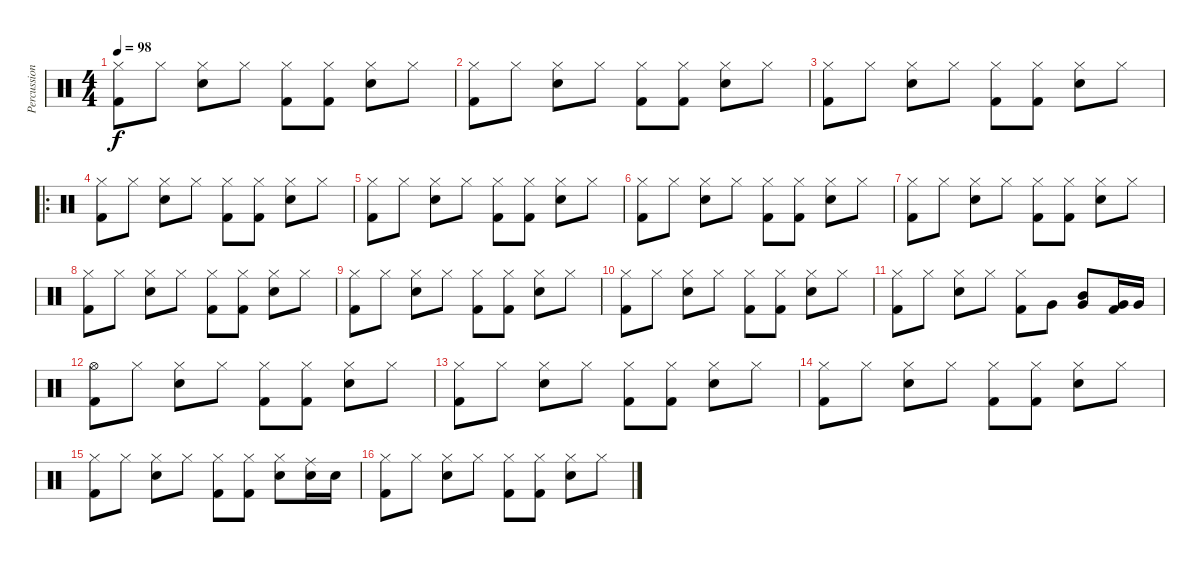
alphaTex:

\track ("Percussion" "Percussion") {instrument percussion}
\staff {score}
\articulation defaults
\ts (4 4)
\tempo 98
\clef neutral
\ks c
("Hi-Hat (closed)" "Kick (hit) 2").8{dy f} "Hi-Hat (closed)".8 ("Hi-Hat (closed)" "Snare (hit) 2").8 "Hi-Hat (closed)".8 ("Hi-Hat (closed)" "Kick (hit) 2").8 ("Hi-Hat (closed)" "Kick (hit) 2").8 ("Hi-Hat (closed)" "Snare (hit) 2").8 "Hi-Hat (closed)".8 |
("Hi-Hat (closed)" "Kick (hit) 2").8 "Hi-Hat (closed)".8 ("Hi-Hat (closed)" "Snare (hit) 2").8 "Hi-Hat (closed)".8 ("Hi-Hat (closed)" "Kick (hit) 2").8 ("Hi-Hat (closed)" "Kick (hit) 2").8 ("Hi-Hat (closed)" "Snare (hit) 2").8 "Hi-Hat (closed)".8 |
("Hi-Hat (closed)" "Kick (hit) 2").8 "Hi-Hat (closed)".8 ("Hi-Hat (closed)" "Snare (hit) 2").8 "Hi-Hat (closed)".8 ("Hi-Hat (closed)" "Kick (hit) 2").8 ("Hi-Hat (closed)" "Kick (hit) 2").8 ("Hi-Hat (closed)" "Snare (hit) 2").8 "Hi-Hat (closed)".8 |
\ro
("Hi-Hat (closed)" "Kick (hit) 2").8 "Hi-Hat (closed)".8 ("Hi-Hat (closed)" "Snare (hit) 2").8 "Hi-Hat (closed)".8 ("Hi-Hat (closed)" "Kick (hit) 2").8 ("Hi-Hat (closed)" "Kick (hit) 2").8 ("Hi-Hat (closed)" "Snare (hit) 2").8 "Hi-Hat (closed)".8 |
("Hi-Hat (closed)" "Kick (hit) 2").8 "Hi-Hat (closed)".8 ("Hi-Hat (closed)" "Snare (hit) 2").8 "Hi-Hat (closed)".8 ("Hi-Hat (closed)" "Kick (hit) 2").8 ("Hi-Hat (closed)" "Kick (hit) 2").8 ("Hi-Hat (closed)" "Snare (hit) 2").8 "Hi-Hat (closed)".8 |
("Hi-Hat (closed)" "Kick (hit) 2").8 "Hi-Hat (closed)".8 ("Hi-Hat (closed)" "Snare (hit) 2").8 "Hi-Hat (closed)".8 ("Hi-Hat (closed)" "Kick (hit) 2").8 ("Hi-Hat (closed)" "Kick (hit) 2").8 ("Hi-Hat (closed)" "Snare (hit) 2").8 "Hi-Hat (closed)".8 |
("Hi-Hat (closed)" "Kick (hit) 2").8 "Hi-Hat (closed)".8 ("Hi-Hat (closed)" "Snare (hit) 2").8 "Hi-Hat (closed)".8 ("Hi-Hat (closed)" "Kick (hit) 2").8 ("Hi-Hat (closed)" "Kick (hit) 2").8 ("Hi-Hat (closed)" "Snare (hit) 2").8 "Hi-Hat (closed)".8 |
("Hi-Hat (closed)" "Kick (hit) 2").8 "Hi-Hat (closed)".8 ("Hi-Hat (closed)" "Snare (hit) 2").8 "Hi-Hat (closed)".8 ("Hi-Hat (closed)" "Kick (hit) 2").8 ("Hi-Hat (closed)" "Kick (hit) 2").8 ("Hi-Hat (closed)" "Snare (hit) 2").8 "Hi-Hat (closed)".8 |
("Hi-Hat (closed)" "Kick (hit) 2").8 "Hi-Hat (closed)".8 ("Hi-Hat (closed)" "Snare (hit) 2").8 "Hi-Hat (closed)".8 ("Hi-Hat (closed)" "Kick (hit) 2").8 ("Hi-Hat (closed)" "Kick (hit) 2").8 ("Hi-Hat (closed)" "Snare (hit) 2").8 "Hi-Hat (closed)".8 |
("Hi-Hat (closed)" "Kick (hit) 2").8 "Hi-Hat (closed)".8 ("Hi-Hat (closed)" "Snare (hit) 2").8 "Hi-Hat (closed)".8 ("Hi-Hat (closed)" "Kick (hit) 2").8 ("Hi-Hat (closed)" "Kick (hit) 2").8 ("Hi-Hat (closed)" "Snare (hit) 2").8 "Hi-Hat (closed)".8 |
("Hi-Hat (closed)" "Kick (hit) 2").8 "Hi-Hat (closed)".8 ("Hi-Hat (closed)" "Snare (hit) 2").8 "Hi-Hat (closed)".8 ("Hi-Hat (closed)" "Kick (hit) 2").8 "Very Low Tom (hit)".8 ("Mid Tom (hit)" "Very Low Tom (hit)").8 ("Very Low Tom (hit)" "Kick (hit) 2").16 "Very Low Tom (hit)".16 |
("Hi-Hat (open)" "Kick (hit) 2").8 "Hi-Hat (closed)".8 ("Hi-Hat (closed)" "Snare (hit) 2").8 "Hi-Hat (closed)".8 ("Hi-Hat (closed)" "Kick (hit) 2").8 ("Hi-Hat (closed)" "Kick (hit) 2").8 ("Hi-Hat (closed)" "Snare (hit) 2").8 "Hi-Hat (closed)".8 |
("Hi-Hat (closed)" "Kick (hit) 2").8 "Hi-Hat (closed)".8 ("Hi-Hat (closed)" "Snare (hit) 2").8 "Hi-Hat (closed)".8 ("Hi-Hat (closed)" "Kick (hit) 2").8 ("Hi-Hat (closed)" "Kick (hit) 2").8 ("Hi-Hat (closed)" "Snare (hit) 2").8 "Hi-Hat (closed)".8 |
("Hi-Hat (closed)" "Kick (hit) 2").8 "Hi-Hat (closed)".8 ("Hi-Hat (closed)" "Snare (hit) 2").8 "Hi-Hat (closed)".8 ("Hi-Hat (closed)" "Kick (hit) 2").8 ("Hi-Hat (closed)" "Kick (hit) 2").8 ("Hi-Hat (closed)" "Snare (hit) 2").8 "Hi-Hat (closed)".8 |
("Hi-Hat (closed)" "Kick (hit) 2").8 "Hi-Hat (closed)".8 ("Hi-Hat (closed)" "Snare (hit) 2").8 "Hi-Hat (closed)".8 ("Hi-Hat (closed)" "Kick (hit) 2").8 ("Hi-Hat (closed)" "Kick (hit) 2").8 ("Hi-Hat (closed)" "Snare (hit) 2").8 ("Ride (middle)" "Snare (hit) 2").16 "Snare (hit) 2".16 |
("Hi-Hat (closed)" "Kick (hit) 2").8 "Hi-Hat (closed)".8 ("Hi-Hat (closed)" "Snare (hit) 2").8 "Hi-Hat (closed)".8 ("Hi-Hat (closed)" "Kick (hit) 2").8 ("Hi-Hat (closed)" "Kick (hit) 2").8 ("Hi-Hat (closed)" "Snare (hit) 2").8 "Hi-Hat (closed)".8
